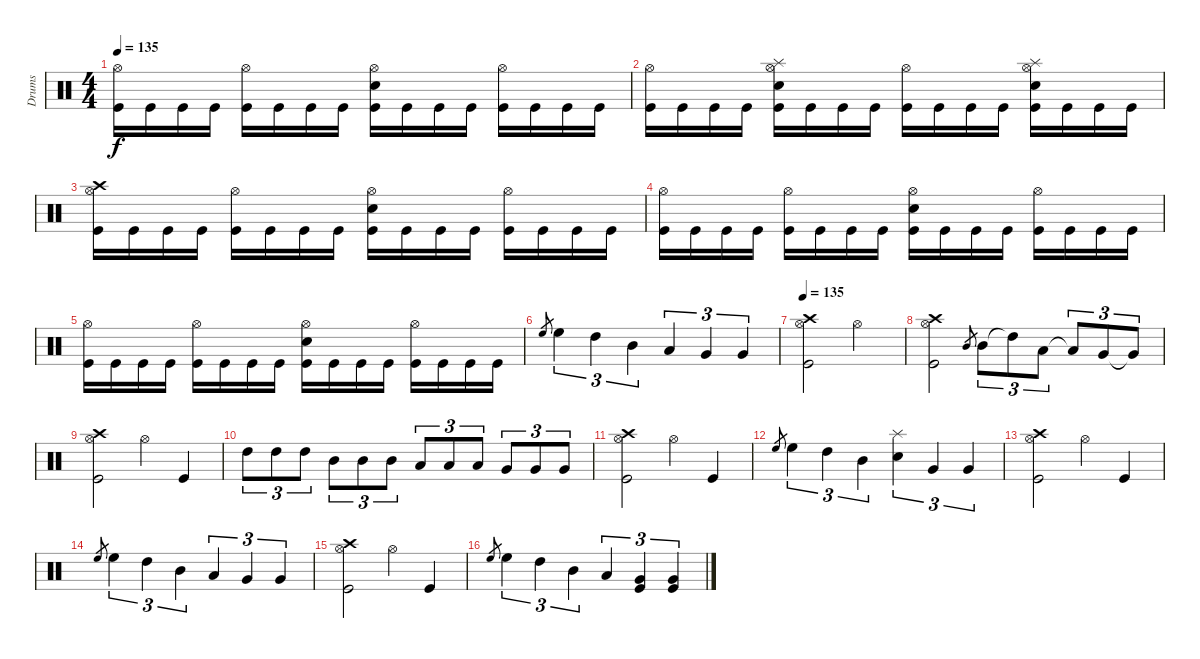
\track ("Drums" "Drums") {instrument percussion}
\staff {score}
\articulation defaults
\ts (4 4)
\tempo 135
\clef neutral
\ks c
("Hi-Hat (open)" "Kick (hit)").16{dy f} "Kick (hit)".16 "Kick (hit)".16 "Kick (hit)".16 ("Hi-Hat (open)" "Kick (hit)").16 "Kick (hit)".16 "Kick (hit)".16 "Kick (hit)".16 ("Hi-Hat (open)" "Electric Snare (hit)" "Kick (hit)").16 "Kick (hit)".16 "Kick (hit)".16 "Kick (hit)".16 ("Hi-Hat (open)" "Kick (hit)").16 "Kick (hit)".16 "Kick (hit)".16 "Kick (hit)".16 |
("Hi-Hat (open)" "Kick (hit)").16 "Kick (hit)".16 "Kick (hit)".16 "Kick (hit)".16 ("Splash (hit)" "Hi-Hat (open)" "Electric Snare (hit)" "Kick (hit)").16 "Kick (hit)".16 "Kick (hit)".16 "Kick (hit)".16 ("Hi-Hat (open)" "Kick (hit)").16 "Kick (hit)".16 "Kick (hit)".16 "Kick (hit)".16 ("Splash (hit)" "Hi-Hat (open)" "Electric Snare (hit)" "Kick (hit)").16 "Kick (hit)".16 "Kick (hit)".16 "Kick (hit)".16 |
("Crash high (hit)" "Hi-Hat (open)" "Kick (hit)").16 "Kick (hit)".16 "Kick (hit)".16 "Kick (hit)".16 ("Hi-Hat (open)" "Kick (hit)").16 "Kick (hit)".16 "Kick (hit)".16 "Kick (hit)".16 ("Hi-Hat (open)" "Electric Snare (hit)" "Kick (hit)").16 "Kick (hit)".16 "Kick (hit)".16 "Kick (hit)".16 ("Hi-Hat (open)" "Kick (hit)").16 "Kick (hit)".16 "Kick (hit)".16 "Kick (hit)".16 |
("Hi-Hat (open)" "Kick (hit)").16 "Kick (hit)".16 "Kick (hit)".16 "Kick (hit)".16 ("Hi-Hat (open)" "Kick (hit)").16 "Kick (hit)".16 "Kick (hit)".16 "Kick (hit)".16 ("Hi-Hat (open)" "Electric Snare (hit)" "Kick (hit)").16 "Kick (hit)".16 "Kick (hit)".16 "Kick (hit)".16 ("Hi-Hat (open)" "Kick (hit)").16 "Kick (hit)".16 "Kick (hit)".16 "Kick (hit)".16 |
("Hi-Hat (open)" "Kick (hit)").16 "Kick (hit)".16 "Kick (hit)".16 "Kick (hit)".16 ("Hi-Hat (open)" "Kick (hit)").16 "Kick (hit)".16 "Kick (hit)".16 "Kick (hit)".16 ("Hi-Hat (open)" "Electric Snare (hit)" "Kick (hit)").16 "Kick (hit)".16 "Kick (hit)".16 "Kick (hit)".16 ("Hi-Hat (open)" "Kick (hit)").16 "Kick (hit)".16 "Kick (hit)".16 "Kick (hit)".16 |
"High Floor Tom (hit)".8{gr} "High Floor Tom (hit)".4{tu (3 2)} "High Tom (hit)".4{tu (3 2)} "Mid Tom (hit)".4{tu (3 2)} "Low Tom (hit)".4{tu (3 2)} "Very Low Tom (hit)".4{tu (3 2)} "Very Low Tom (hit)".4{tu (3 2)} |
\tempo 135
("Crash high (hit)" "Hi-Hat (open)" "Kick (hit)").2 "Hi-Hat (open)".2 |
("Crash high (hit)" "Hi-Hat (open)" "Kick (hit)").2 "Mid Tom (hit)".8{gr} "Mid Tom (hit)".8{tu (3 2)} "High Tom (hit)"{t}.8{tu (3 2)} "Low Tom (hit)".8{tu (3 2)} "Low Tom (hit)"{t}.8{tu (3 2)} "Very Low Tom (hit)".8{tu (3 2)} "Very Low Tom (hit)"{t}.8{tu (3 2)} |
("Crash high (hit)" "Hi-Hat (open)" "Kick (hit)").2 "Hi-Hat (open)".4 "Kick (hit)".4 |
"High Tom (hit)".8{tu (3 2)} "High Tom (hit)".8{tu (3 2)} "High Tom (hit)".8{tu (3 2)} "Mid Tom (hit)".8{tu (3 2)} "Mid Tom (hit)".8{tu (3 2)} "Mid Tom (hit)".8{tu (3 2)} "Low Tom (hit)".8{tu (3 2)} "Low Tom (hit)".8{tu (3 2)} "Low Tom (hit)".8{tu (3 2)} "Very Low Tom (hit)".8{tu (3 2)} "Very Low Tom (hit)".8{tu (3 2)} "Very Low Tom (hit)".8{tu (3 2)} |
("Crash high (hit)" "Hi-Hat (open)" "Kick (hit)").2 "Hi-Hat (open)".4 "Kick (hit)".4 |
"High Floor Tom (hit)".8{gr} "High Floor Tom (hit)".4{tu (3 2)} "High Tom (hit)".4{tu (3 2)} "Mid Tom (hit)".4{tu (3 2)} ("Splash (hit)" "Electric Snare (hit)").4{tu (3 2)} "Very Low Tom (hit)".4{tu (3 2)} "Very Low Tom (hit)".4{tu (3 2)} |
("Crash high (hit)" "Hi-Hat (open)" "Kick (hit)").2 "Hi-Hat (open)".4 "Kick (hit)".4 |
"High Floor Tom (hit)".8{gr} "High Floor Tom (hit)".4{tu (3 2)} "High Tom (hit)".4{tu (3 2)} "Mid Tom (hit)".4{tu (3 2)} "Low Tom (hit)".4{tu (3 2)} "Very Low Tom (hit)".4{tu (3 2)} "Very Low Tom (hit)".4{tu (3 2)} |
("Crash high (hit)" "Hi-Hat (open)" "Kick (hit)").2 "Hi-Hat (open)".4 "Kick (hit)".4 |
"High Floor Tom (hit)".8{gr} "High Floor Tom (hit)".4{tu (3 2)} "High Tom (hit)".4{tu (3 2)} "Mid Tom (hit)".4{tu (3 2)} "Low Tom (hit)".4{tu (3 2)} ("Very Low Tom (hit)" "Kick (hit)").4{tu (3 2)} ("Very Low Tom (hit)" "Kick (hit)").4{tu (3 2)}
